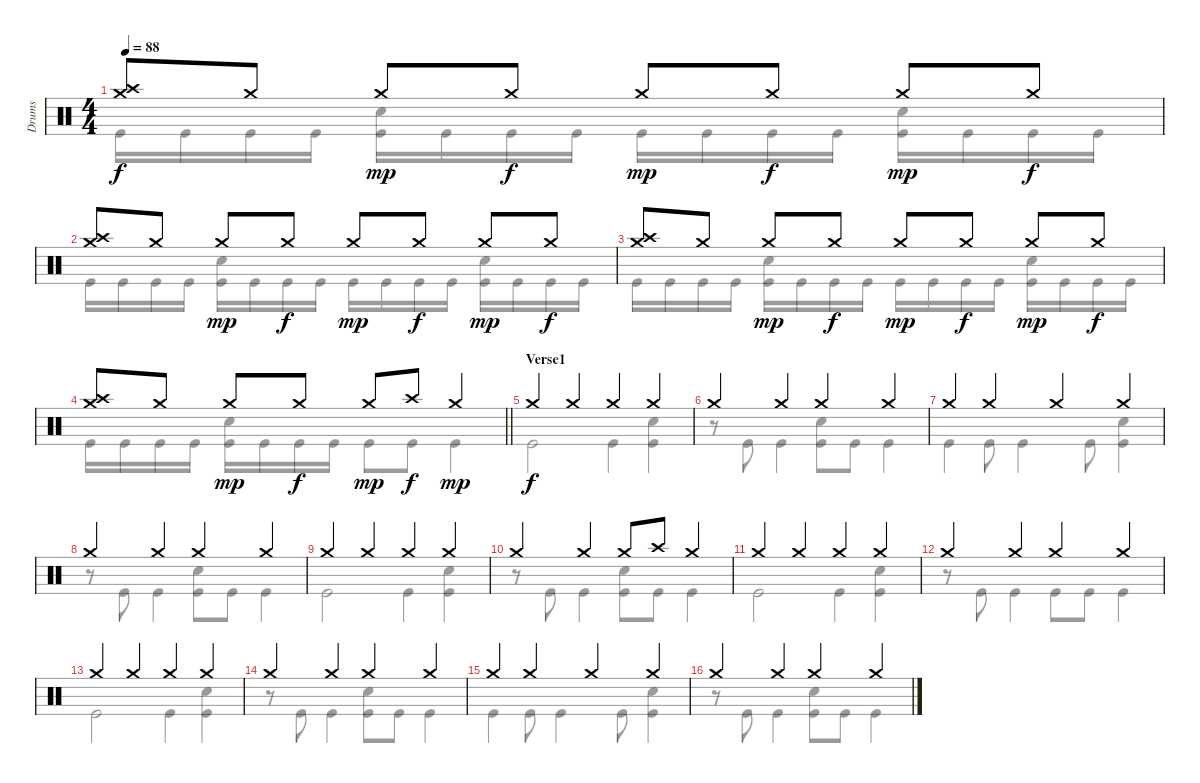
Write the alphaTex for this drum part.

\track ("Drums" "Drums") {instrument percussion}
\staff {score}
\articulation defaults
\voice
\ts (4 4)
\tempo 88
\clef neutral
\ks c
("Crash medium (hit)" "Crash high (hit)").8{dy f} "Crash medium (hit)".8 "Crash medium (hit)".8{dy mp} "Crash medium (hit)".8{dy f} "Crash medium (hit)".8{dy mp} "Crash medium (hit)".8{dy f} "Crash medium (hit)".8{dy mp} "Crash medium (hit)".8{dy f} |
("Crash medium (hit)" "Crash high (hit)").8 "Crash medium (hit)".8 "Crash medium (hit)".8{dy mp} "Crash medium (hit)".8{dy f} "Crash medium (hit)".8{dy mp} "Crash medium (hit)".8{dy f} "Crash medium (hit)".8{dy mp} "Crash medium (hit)".8{dy f} |
("Crash medium (hit)" "Crash high (hit)").8 "Crash medium (hit)".8 "Crash medium (hit)".8{dy mp} "Crash medium (hit)".8{dy f} "Crash medium (hit)".8{dy mp} "Crash medium (hit)".8{dy f} "Crash medium (hit)".8{dy mp} "Crash medium (hit)".8{dy f} |
\barLineRight lightlight
("Crash medium (hit)" "Crash high (hit)").8 "Crash medium (hit)".8 "Crash medium (hit)".8{dy mp} "Crash medium (hit)".8{dy f} "Crash medium (hit)".8{dy mp} "Crash high (hit)".8{dy f} "Crash medium (hit)".4{dy mp} |
\section ("" "Verse1")
"Crash medium (hit)".4{dy f} "Crash medium (hit)".4 "Crash medium (hit)".4 "Crash medium (hit)".4 |
"Crash medium (hit)".4 "Crash medium (hit)".4 "Crash medium (hit)".4 "Crash medium (hit)".4 |
"Crash medium (hit)".4 "Crash medium (hit)".4 "Crash medium (hit)".4 "Crash medium (hit)".4 |
"Crash medium (hit)".4 "Crash medium (hit)".4 "Crash medium (hit)".4 "Crash medium (hit)".4 |
"Crash medium (hit)".4 "Crash medium (hit)".4 "Crash medium (hit)".4 "Crash medium (hit)".4 |
"Crash medium (hit)".4 "Crash medium (hit)".4 "Crash medium (hit)".8 "Crash high (hit)".8 "Crash medium (hit)".4 |
"Crash medium (hit)".4 "Crash medium (hit)".4 "Crash medium (hit)".4 "Crash medium (hit)".4 |
"Crash medium (hit)".4 "Crash medium (hit)".4 "Crash medium (hit)".4 "Crash medium (hit)".4 |
"Crash medium (hit)".4 "Crash medium (hit)".4 "Crash medium (hit)".4 "Crash medium (hit)".4 |
"Crash medium (hit)".4 "Crash medium (hit)".4 "Crash medium (hit)".4 "Crash medium (hit)".4 |
"Crash medium (hit)".4 "Crash medium (hit)".4 "Crash medium (hit)".4 "Crash medium (hit)".4 |
"Crash medium (hit)".4 "Crash medium (hit)".4 "Crash medium (hit)".4 "Crash medium (hit)".4
\voice
\clef neutral
\ottava regular
\simile none
\ks c "Kick (hit)".16{dy f} "Kick (hit)".16 "Kick (hit)".16 "Kick (hit)".16
("Snare (hit) 2" "Kick (hit)").16 "Kick (hit)".16 "Kick (hit)".16 "Kick (hit)".16 "Kick (hit)".16 "Kick (hit)".16 "Kick (hit)".16 "Kick (hit)".16 ("Snare (hit) 2" "Kick (hit)").16 "Kick (hit)".16 "Kick (hit)".16 "Kick (hit)".16 |
"Kick (hit)".16 "Kick (hit)".16 "Kick (hit)".16 "Kick (hit)".16 ("Snare (hit) 2" "Kick (hit)").16 "Kick (hit)".16 "Kick (hit)".16 "Kick (hit)".16 "Kick (hit)".16 "Kick (hit)".16 "Kick (hit)".16 "Kick (hit)".16 ("Snare (hit) 2" "Kick (hit)").16 "Kick (hit)".16 "Kick (hit)".16 "Kick (hit)".16 |
"Kick (hit)".16 "Kick (hit)".16 "Kick (hit)".16 "Kick (hit)".16 ("Snare (hit) 2" "Kick (hit)").16 "Kick (hit)".16 "Kick (hit)".16 "Kick (hit)".16 "Kick (hit)".16 "Kick (hit)".16 "Kick (hit)".16 "Kick (hit)".16 ("Snare (hit) 2" "Kick (hit)").16 "Kick (hit)".16 "Kick (hit)".16 "Kick (hit)".16 |
\barLineRight lightlight "Kick (hit)".16 "Kick (hit)".16 "Kick (hit)".16 "Kick (hit)".16
("Snare (hit) 2" "Kick (hit)").16 "Kick (hit)".16 "Kick (hit)".16 "Kick (hit)".16 "Kick (hit)".8 "Kick (hit)".8 "Kick (hit)".4 |
"Kick (hit)".2 "Kick (hit)".4 ("Snare (hit) 2" "Kick (hit)").4 |
r.8 "Kick (hit)".8 "Kick (hit)".4 ("Snare (hit) 2" "Kick (hit)").8 "Kick (hit)".8 "Kick (hit)".4 |
"Kick (hit)".4 "Kick (hit)".8 "Kick (hit)".4 "Kick (hit)".8 ("Snare (hit) 2" "Kick (hit)").4 |
r.8 "Kick (hit)".8 "Kick (hit)".4 ("Snare (hit) 2" "Kick (hit)").8 "Kick (hit)".8 "Kick (hit)".4 |
"Kick (hit)".2 "Kick (hit)".4 ("Snare (hit) 2" "Kick (hit)").4 |
r.8 "Kick (hit)".8 "Kick (hit)".4 ("Snare (hit) 2" "Kick (hit)").8 "Kick (hit)".8 "Kick (hit)".4 |
"Kick (hit)".2 "Kick (hit)".4 ("Snare (hit) 2" "Kick (hit)").4 |
r.8 "Kick (hit)".8 "Kick (hit)".4 "Kick (hit)".8 "Kick (hit)".8 "Kick (hit)".4 |
"Kick (hit)".2 "Kick (hit)".4 ("Snare (hit) 2" "Kick (hit)").4 |
r.8 "Kick (hit)".8 "Kick (hit)".4 ("Snare (hit) 2" "Kick (hit)").8 "Kick (hit)".8 "Kick (hit)".4 |
"Kick (hit)".4 "Kick (hit)".8 "Kick (hit)".4 "Kick (hit)".8 ("Snare (hit) 2" "Kick (hit)").4 |
r.8 "Kick (hit)".8 "Kick (hit)".4 ("Snare (hit) 2" "Kick (hit)").8 "Kick (hit)".8 "Kick (hit)".4
